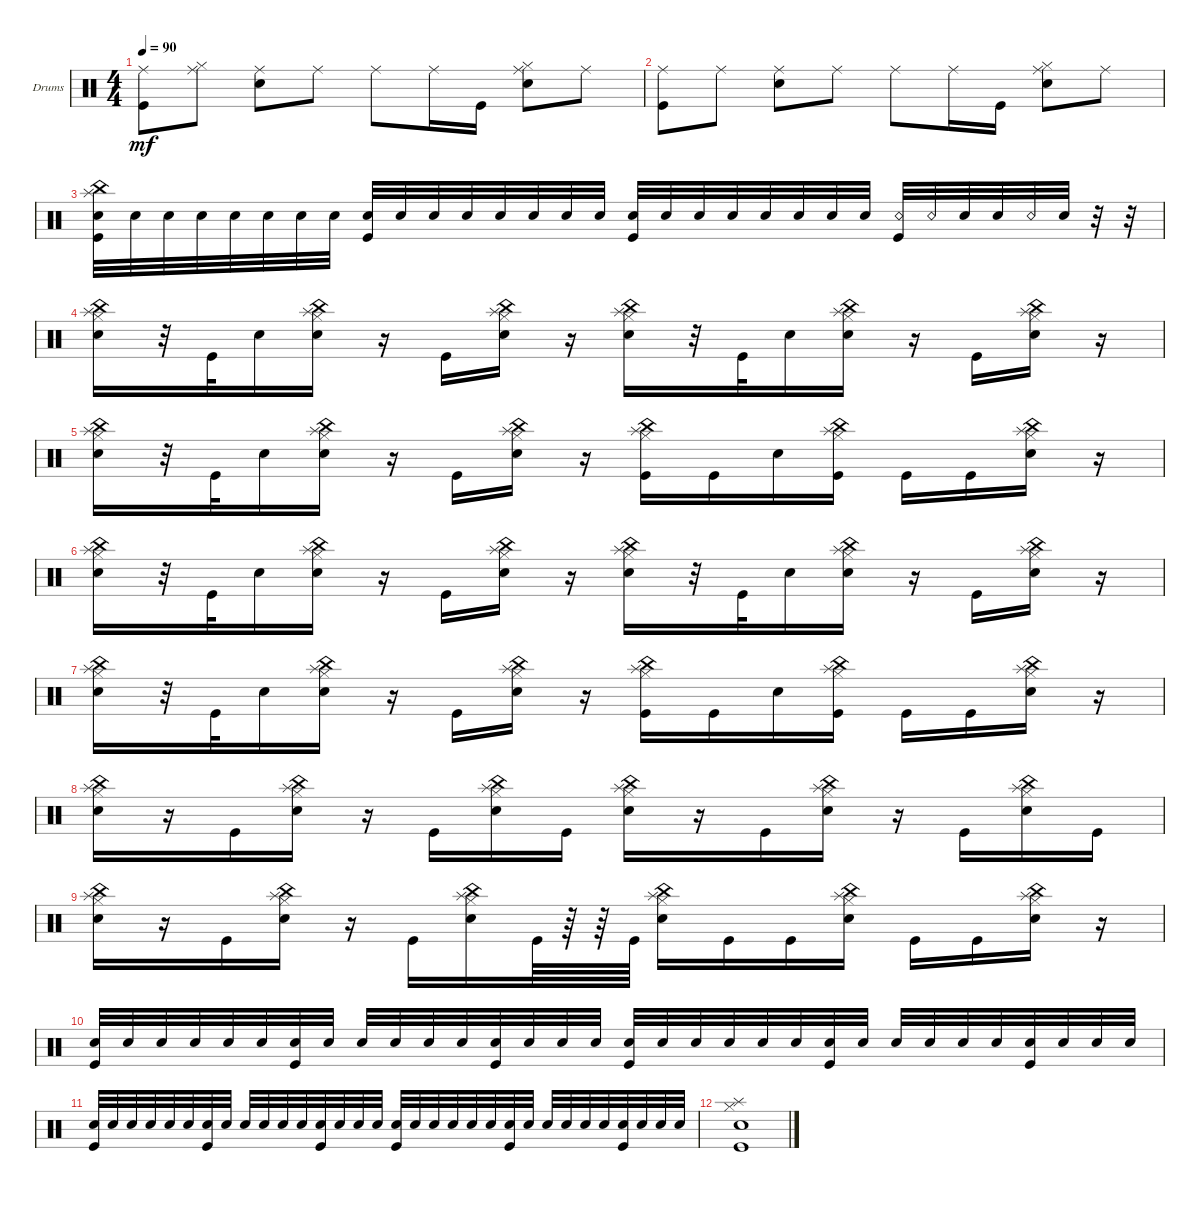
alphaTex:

\defaultSystemsLayout 4
\bracketExtendMode groupsimilarinstruments
\firstSystemTrackNameOrientation horizontal
\otherSystemsTrackNameOrientation horizontal
\track ("Drumkit" "Drums") {instrument percussion}
\staff {score}
\articulation defaults
\ts (4 4)
\tempo 90
\clef neutral
\ks c
("Ride (middle)" "Kick (hit)").8{dy mf} ("Ride (middle)" "Hi-Hat (closed)").8 ("Ride (middle)" "Snare (hit) 2").8 "Ride (middle)".8 "Ride (middle)".8 "Ride (middle)".16 "Kick (hit)".16 ("Ride (middle)" "Snare (hit) 2" "Hi-Hat (closed)").8 "Ride (middle)".8 |
("Ride (middle)" "Kick (hit)").8 "Ride (middle)".8 ("Ride (middle)" "Snare (hit) 2").8 "Ride (middle)".8 "Ride (middle)".8 "Ride (middle)".16 "Kick (hit)".16 ("Ride (middle)" "Snare (hit) 2" "Hi-Hat (closed)").8 "Ride (middle)".8 |
("Snare (hit) 2" "Kick (hit)" "China (hit)" "Splash (hit)").32 "Snare (hit) 2".32 "Snare (hit) 2".32 "Snare (hit) 2".32 "Snare (hit) 2".32 "Snare (hit) 2".32 "Snare (hit) 2".32 "Snare (hit) 2".32 ("Snare (hit) 2" "Kick (hit)").32 "Snare (hit) 2".32 "Snare (hit) 2".32 "Snare (hit) 2".32 "Snare (hit) 2".32 "Snare (hit) 2".32 "Snare (hit) 2".32 "Snare (hit) 2".32 ("Snare (hit) 2" "Kick (hit)").32 "Snare (hit) 2".32 "Snare (hit) 2".32 "Snare (hit) 2".32 "Snare (hit) 2".32 "Snare (hit) 2".32 "Snare (hit) 2".32 "Snare (hit) 2".32 ("Snare (rim shot)" "Kick (hit)").32 "Snare (rim shot)".32 "Snare (hit) 2".32 "Snare (hit) 2".32 "Snare (rim shot)".32 "Snare (hit) 2".32 r.32 r.32 |
("Hi-Hat (closed)" "Splash (hit)" "Snare (hit) 2" "China (hit)").16 r.32 "Kick (hit)".32 "Snare (hit) 2".16 ("Snare (hit) 2" "Hi-Hat (closed)" "Splash (hit)" "China (hit)").16 r.16 "Kick (hit)".16 ("Snare (hit) 2" "Splash (hit)" "Hi-Hat (closed)" "China (hit)").16 r.16 ("Snare (hit) 2" "Splash (hit)" "Hi-Hat (closed)" "China (hit)").16 r.32 "Kick (hit)".32 "Snare (hit) 2".16 ("Snare (hit) 2" "Hi-Hat (closed)" "Splash (hit)" "China (hit)").16 r.16 "Kick (hit)".16 ("Snare (hit) 2" "Hi-Hat (closed)" "Splash (hit)" "China (hit)").16 r.16 |
("Hi-Hat (closed)" "Splash (hit)" "Snare (hit) 2" "China (hit)").16 r.32 "Kick (hit)".32 "Snare (hit) 2".16 ("Snare (hit) 2" "Hi-Hat (closed)" "Splash (hit)" "China (hit)").16 r.16 "Kick (hit)".16 ("Snare (hit) 2" "Splash (hit)" "Hi-Hat (closed)" "China (hit)").16 r.16 ("Splash (hit)" "Hi-Hat (closed)" "Kick (hit)" "China (hit)").16 "Kick (hit)".16 "Snare (hit) 2".16 ("Hi-Hat (closed)" "Splash (hit)" "Kick (hit)" "China (hit)").16 "Kick (hit)".16 "Kick (hit)".16 ("Snare (hit) 2" "Hi-Hat (closed)" "Splash (hit)" "China (hit)").16 r.16 |
("Hi-Hat (closed)" "Splash (hit)" "Snare (hit) 2" "China (hit)").16 r.32 "Kick (hit)".32 "Snare (hit) 2".16 ("Snare (hit) 2" "Hi-Hat (closed)" "Splash (hit)" "China (hit)").16 r.16 "Kick (hit)".16 ("Snare (hit) 2" "Splash (hit)" "Hi-Hat (closed)" "China (hit)").16 r.16 ("Snare (hit) 2" "Splash (hit)" "Hi-Hat (closed)" "China (hit)").16 r.32 "Kick (hit)".32 "Snare (hit) 2".16 ("Snare (hit) 2" "Hi-Hat (closed)" "Splash (hit)" "China (hit)").16 r.16 "Kick (hit)".16 ("Snare (hit) 2" "Hi-Hat (closed)" "Splash (hit)" "China (hit)").16 r.16 |
("Hi-Hat (closed)" "Splash (hit)" "Snare (hit) 2" "China (hit)").16 r.32 "Kick (hit)".32 "Snare (hit) 2".16 ("Snare (hit) 2" "Hi-Hat (closed)" "Splash (hit)" "China (hit)").16 r.16 "Kick (hit)".16 ("Snare (hit) 2" "Splash (hit)" "Hi-Hat (closed)" "China (hit)").16 r.16 ("Splash (hit)" "Hi-Hat (closed)" "Kick (hit)" "China (hit)").16 "Kick (hit)".16 "Snare (hit) 2".16 ("Hi-Hat (closed)" "Splash (hit)" "Kick (hit)" "China (hit)").16 "Kick (hit)".16 "Kick (hit)".16 ("Snare (hit) 2" "Hi-Hat (closed)" "Splash (hit)" "China (hit)").16 r.16 |
("Hi-Hat (closed)" "Splash (hit)" "Snare (hit) 2" "China (hit)").16 r.16 "Kick (hit)".16 ("Snare (hit) 2" "Hi-Hat (closed)" "Splash (hit)" "China (hit)").16 r.16 "Kick (hit)".16 ("Snare (hit) 2" "Hi-Hat (closed)" "Splash (hit)" "China (hit)").16 "Kick (hit)".16 ("Hi-Hat (closed)" "Splash (hit)" "Snare (hit) 2" "China (hit)").16 r.16 "Kick (hit)".16 ("Snare (hit) 2" "Hi-Hat (closed)" "Splash (hit)" "China (hit)").16 r.16 "Kick (hit)".16 ("Snare (hit) 2" "Hi-Hat (closed)" "Splash (hit)" "China (hit)").16 "Kick (hit)".16 |
("Hi-Hat (closed)" "Splash (hit)" "Snare (hit) 2" "China (hit)").16 r.16 "Kick (hit)".16 ("Snare (hit) 2" "Hi-Hat (closed)" "Splash (hit)" "China (hit)").16 r.16 "Kick (hit)".16 ("Snare (hit) 2" "Hi-Hat (closed)" "Splash (hit)" "China (hit)").16 "Kick (hit)".64 r.64 r.64 "Kick (hit)".64 ("Hi-Hat (closed)" "Splash (hit)" "Snare (hit) 2" "China (hit)").16 "Kick (hit)".16 "Kick (hit)".16 ("Hi-Hat (closed)" "Splash (hit)" "Snare (hit) 2" "China (hit)").16 "Kick (hit)".16 "Kick (hit)".16 ("Hi-Hat (closed)" "Splash (hit)" "Snare (hit) 2" "China (hit)").16 r.16 |
("Snare (hit) 2" "Kick (hit)").32 "Snare (hit) 2".32 "Snare (hit) 2".32 "Snare (hit) 2".32 "Snare (hit) 2".32 "Snare (hit) 2".32 ("Snare (hit) 2" "Kick (hit)").32 "Snare (hit) 2".32 "Snare (hit) 2".32 "Snare (hit) 2".32 "Snare (hit) 2".32 "Snare (hit) 2".32 ("Snare (hit) 2" "Kick (hit)").32 "Snare (hit) 2".32 "Snare (hit) 2".32 "Snare (hit) 2".32 ("Snare (hit) 2" "Kick (hit)").32 "Snare (hit) 2".32 "Snare (hit) 2".32 "Snare (hit) 2".32 "Snare (hit) 2".32 "Snare (hit) 2".32 ("Snare (hit) 2" "Kick (hit)").32 "Snare (hit) 2".32 "Snare (hit) 2".32 "Snare (hit) 2".32 "Snare (hit) 2".32 "Snare (hit) 2".32 ("Snare (hit) 2" "Kick (hit)").32 "Snare (hit) 2".32 "Snare (hit) 2".32 "Snare (hit) 2".32 |
("Snare (hit) 2" "Kick (hit)").32 "Snare (hit) 2".32 "Snare (hit) 2".32 "Snare (hit) 2".32 "Snare (hit) 2".32 "Snare (hit) 2".32 ("Snare (hit) 2" "Kick (hit)").32 "Snare (hit) 2".32 "Snare (hit) 2".32 "Snare (hit) 2".32 "Snare (hit) 2".32 "Snare (hit) 2".32 ("Snare (hit) 2" "Kick (hit)").32 "Snare (hit) 2".32 "Snare (hit) 2".32 "Snare (hit) 2".32 ("Snare (hit) 2" "Kick (hit)").32 "Snare (hit) 2".32 "Snare (hit) 2".32 "Snare (hit) 2".32 "Snare (hit) 2".32 "Snare (hit) 2".32 ("Snare (hit) 2" "Kick (hit)").32 "Snare (hit) 2".32 "Snare (hit) 2".32 "Snare (hit) 2".32 "Snare (hit) 2".32 "Snare (hit) 2".32 ("Snare (hit) 2" "Kick (hit)").32 "Snare (hit) 2".32 "Snare (hit) 2".32 "Snare (hit) 2".32 |
("Snare (hit) 2" "Hi-Hat (closed)" "Splash (hit)" "Kick (hit)").1
